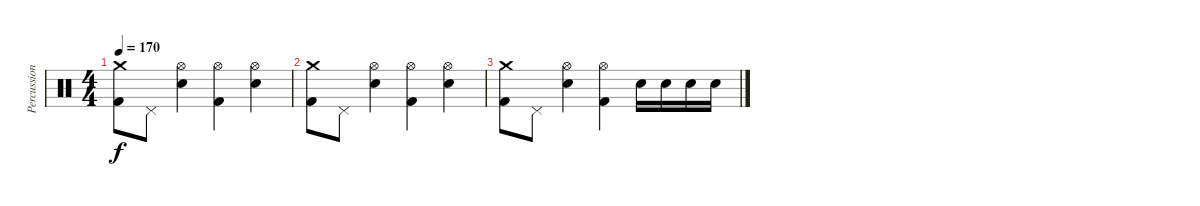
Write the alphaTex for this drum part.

\track ("Percussion" "Percussion") {instrument percussion}
\staff {score}
\articulation defaults
\ts (4 4)
\tempo 170
\clef neutral
\ks c
("Crash medium (hit)" "Kick (hit) 2").8{dy f} "Pedal Hi-Hat (hit)".8 ("Hi-Hat (open)" "Electric Snare (hit)").4 ("Hi-Hat (open)" "Kick (hit) 2").4 ("Hi-Hat (open)" "Electric Snare (hit)").4 |
("Crash medium (hit)" "Kick (hit) 2").8 "Pedal Hi-Hat (hit)".8 ("Hi-Hat (open)" "Electric Snare (hit)").4 ("Hi-Hat (open)" "Kick (hit) 2").4 ("Hi-Hat (open)" "Electric Snare (hit)").4 |
("Crash medium (hit)" "Kick (hit) 2").8 "Pedal Hi-Hat (hit)".8 ("Hi-Hat (open)" "Electric Snare (hit)").4 ("Hi-Hat (open)" "Kick (hit) 2").4 "Electric Snare (hit)".16 "Electric Snare (hit)".16 "Electric Snare (hit)".16 "Electric Snare (hit)".16
